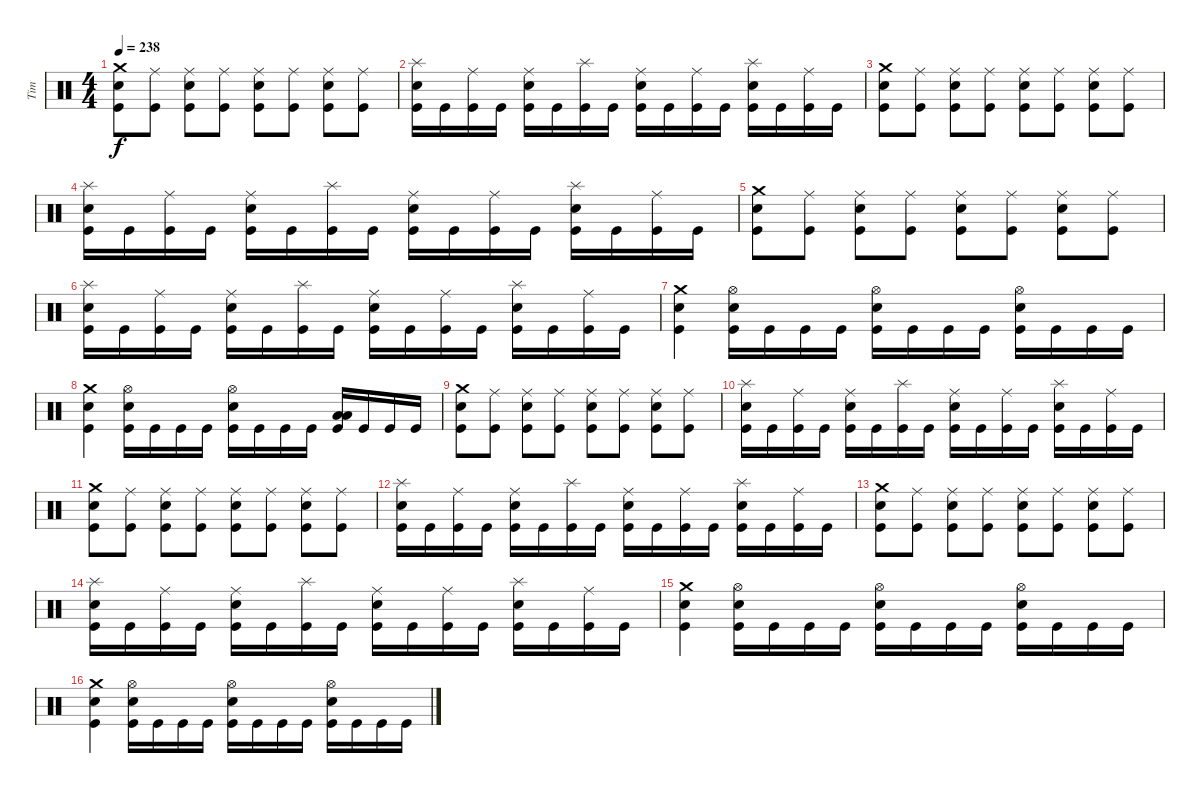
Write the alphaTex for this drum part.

\track ("Tim" "Tim") {instrument percussion}
\staff {score}
\articulation defaults
\ts (4 4)
\tempo 238
\clef neutral
\ks c
("Crash medium (hit)" "Electric Snare (hit)" "Kick (hit)").8{dy f} ("Ride (middle)" "Kick (hit)").8 ("Ride (middle)" "Electric Snare (hit)" "Kick (hit)").8 ("Ride (middle)" "Kick (hit)").8 ("Ride (middle)" "Electric Snare (hit)" "Kick (hit)").8 ("Ride (middle)" "Kick (hit)").8 ("Ride (middle)" "Electric Snare (hit)" "Kick (hit)").8 ("Ride (middle)" "Kick (hit)").8 |
("Splash (hit)" "Electric Snare (hit)" "Kick (hit)").16 "Kick (hit)".16 ("Ride (middle)" "Kick (hit)").16 "Kick (hit)".16 ("Ride (middle)" "Electric Snare (hit)" "Kick (hit)").16 "Kick (hit)".16 ("Splash (hit)" "Kick (hit)").16 "Kick (hit)".16 ("Ride (middle)" "Electric Snare (hit)" "Kick (hit)").16 "Kick (hit)".16 ("Ride (middle)" "Kick (hit)").16 "Kick (hit)".16 ("Splash (hit)" "Electric Snare (hit)" "Kick (hit)").16 "Kick (hit)".16 ("Ride (middle)" "Kick (hit)").16 "Kick (hit)".16 |
("Crash medium (hit)" "Electric Snare (hit)" "Kick (hit)").8 ("Ride (middle)" "Kick (hit)").8 ("Ride (middle)" "Electric Snare (hit)" "Kick (hit)").8 ("Ride (middle)" "Kick (hit)").8 ("Ride (middle)" "Electric Snare (hit)" "Kick (hit)").8 ("Ride (middle)" "Kick (hit)").8 ("Ride (middle)" "Electric Snare (hit)" "Kick (hit)").8 ("Ride (middle)" "Kick (hit)").8 |
("Splash (hit)" "Electric Snare (hit)" "Kick (hit)").16 "Kick (hit)".16 ("Ride (middle)" "Kick (hit)").16 "Kick (hit)".16 ("Ride (middle)" "Electric Snare (hit)" "Kick (hit)").16 "Kick (hit)".16 ("Splash (hit)" "Kick (hit)").16 "Kick (hit)".16 ("Ride (middle)" "Electric Snare (hit)" "Kick (hit)").16 "Kick (hit)".16 ("Ride (middle)" "Kick (hit)").16 "Kick (hit)".16 ("Splash (hit)" "Electric Snare (hit)" "Kick (hit)").16 "Kick (hit)".16 ("Ride (middle)" "Kick (hit)").16 "Kick (hit)".16 |
("Crash medium (hit)" "Electric Snare (hit)" "Kick (hit)").8 ("Ride (middle)" "Kick (hit)").8 ("Ride (middle)" "Electric Snare (hit)" "Kick (hit)").8 ("Ride (middle)" "Kick (hit)").8 ("Ride (middle)" "Electric Snare (hit)" "Kick (hit)").8 ("Ride (middle)" "Kick (hit)").8 ("Ride (middle)" "Electric Snare (hit)" "Kick (hit)").8 ("Ride (middle)" "Kick (hit)").8 |
("Splash (hit)" "Electric Snare (hit)" "Kick (hit)").16 "Kick (hit)".16 ("Ride (middle)" "Kick (hit)").16 "Kick (hit)".16 ("Ride (middle)" "Electric Snare (hit)" "Kick (hit)").16 "Kick (hit)".16 ("Splash (hit)" "Kick (hit)").16 "Kick (hit)".16 ("Ride (middle)" "Electric Snare (hit)" "Kick (hit)").16 "Kick (hit)".16 ("Ride (middle)" "Kick (hit)").16 "Kick (hit)".16 ("Splash (hit)" "Electric Snare (hit)" "Kick (hit)").16 "Kick (hit)".16 ("Ride (middle)" "Kick (hit)").16 "Kick (hit)".16 |
("Crash medium (hit)" "Electric Snare (hit)" "Kick (hit)").4 ("Hi-Hat (open)" "Electric Snare (hit)" "Kick (hit)").16 "Kick (hit)".16 "Kick (hit)".16 "Kick (hit)".16 ("Hi-Hat (open)" "Electric Snare (hit)" "Kick (hit)").16 "Kick (hit)".16 "Kick (hit)".16 "Kick (hit)".16 ("Hi-Hat (open)" "Electric Snare (hit)" "Kick (hit)").16 "Kick (hit)".16 "Kick (hit)".16 "Kick (hit)".16 |
("Crash medium (hit)" "Electric Snare (hit)" "Kick (hit)").4 ("Hi-Hat (open)" "Electric Snare (hit)" "Kick (hit)").16 "Kick (hit)".16 "Kick (hit)".16 "Kick (hit)".16 ("Hi-Hat (open)" "Electric Snare (hit)" "Kick (hit)").16 "Kick (hit)".16 "Kick (hit)".16 "Kick (hit)".16 ("Low Floor Tom (hit)" "Low Floor Tom (hit)" "Kick (hit)").16 "Kick (hit)".16 "Kick (hit)".16 "Kick (hit)".16 |
("Crash medium (hit)" "Electric Snare (hit)" "Kick (hit)").8 ("Ride (middle)" "Kick (hit)").8 ("Ride (middle)" "Electric Snare (hit)" "Kick (hit)").8 ("Ride (middle)" "Kick (hit)").8 ("Ride (middle)" "Electric Snare (hit)" "Kick (hit)").8 ("Ride (middle)" "Kick (hit)").8 ("Ride (middle)" "Electric Snare (hit)" "Kick (hit)").8 ("Ride (middle)" "Kick (hit)").8 |
("Splash (hit)" "Electric Snare (hit)" "Kick (hit)").16 "Kick (hit)".16 ("Ride (middle)" "Kick (hit)").16 "Kick (hit)".16 ("Ride (middle)" "Electric Snare (hit)" "Kick (hit)").16 "Kick (hit)".16 ("Splash (hit)" "Kick (hit)").16 "Kick (hit)".16 ("Ride (middle)" "Electric Snare (hit)" "Kick (hit)").16 "Kick (hit)".16 ("Ride (middle)" "Kick (hit)").16 "Kick (hit)".16 ("Splash (hit)" "Electric Snare (hit)" "Kick (hit)").16 "Kick (hit)".16 ("Ride (middle)" "Kick (hit)").16 "Kick (hit)".16 |
("Crash medium (hit)" "Electric Snare (hit)" "Kick (hit)").8 ("Ride (middle)" "Kick (hit)").8 ("Ride (middle)" "Electric Snare (hit)" "Kick (hit)").8 ("Ride (middle)" "Kick (hit)").8 ("Ride (middle)" "Electric Snare (hit)" "Kick (hit)").8 ("Ride (middle)" "Kick (hit)").8 ("Ride (middle)" "Electric Snare (hit)" "Kick (hit)").8 ("Ride (middle)" "Kick (hit)").8 |
("Splash (hit)" "Electric Snare (hit)" "Kick (hit)").16 "Kick (hit)".16 ("Ride (middle)" "Kick (hit)").16 "Kick (hit)".16 ("Ride (middle)" "Electric Snare (hit)" "Kick (hit)").16 "Kick (hit)".16 ("Splash (hit)" "Kick (hit)").16 "Kick (hit)".16 ("Ride (middle)" "Electric Snare (hit)" "Kick (hit)").16 "Kick (hit)".16 ("Ride (middle)" "Kick (hit)").16 "Kick (hit)".16 ("Splash (hit)" "Electric Snare (hit)" "Kick (hit)").16 "Kick (hit)".16 ("Ride (middle)" "Kick (hit)").16 "Kick (hit)".16 |
("Crash medium (hit)" "Electric Snare (hit)" "Kick (hit)").8 ("Ride (middle)" "Kick (hit)").8 ("Ride (middle)" "Electric Snare (hit)" "Kick (hit)").8 ("Ride (middle)" "Kick (hit)").8 ("Ride (middle)" "Electric Snare (hit)" "Kick (hit)").8 ("Ride (middle)" "Kick (hit)").8 ("Ride (middle)" "Electric Snare (hit)" "Kick (hit)").8 ("Ride (middle)" "Kick (hit)").8 |
("Splash (hit)" "Electric Snare (hit)" "Kick (hit)").16 "Kick (hit)".16 ("Ride (middle)" "Kick (hit)").16 "Kick (hit)".16 ("Ride (middle)" "Electric Snare (hit)" "Kick (hit)").16 "Kick (hit)".16 ("Splash (hit)" "Kick (hit)").16 "Kick (hit)".16 ("Ride (middle)" "Electric Snare (hit)" "Kick (hit)").16 "Kick (hit)".16 ("Ride (middle)" "Kick (hit)").16 "Kick (hit)".16 ("Splash (hit)" "Electric Snare (hit)" "Kick (hit)").16 "Kick (hit)".16 ("Ride (middle)" "Kick (hit)").16 "Kick (hit)".16 |
("Crash medium (hit)" "Electric Snare (hit)" "Kick (hit)").4 ("Hi-Hat (open)" "Electric Snare (hit)" "Kick (hit)").16 "Kick (hit)".16 "Kick (hit)".16 "Kick (hit)".16 ("Hi-Hat (open)" "Electric Snare (hit)" "Kick (hit)").16 "Kick (hit)".16 "Kick (hit)".16 "Kick (hit)".16 ("Hi-Hat (open)" "Electric Snare (hit)" "Kick (hit)").16 "Kick (hit)".16 "Kick (hit)".16 "Kick (hit)".16 |
("Crash medium (hit)" "Electric Snare (hit)" "Kick (hit)").4 ("Hi-Hat (open)" "Electric Snare (hit)" "Kick (hit)").16 "Kick (hit)".16 "Kick (hit)".16 "Kick (hit)".16 ("Hi-Hat (open)" "Electric Snare (hit)" "Kick (hit)").16 "Kick (hit)".16 "Kick (hit)".16 "Kick (hit)".16 ("Hi-Hat (open)" "Electric Snare (hit)" "Kick (hit)").16 "Kick (hit)".16 "Kick (hit)".16 "Kick (hit)".16
